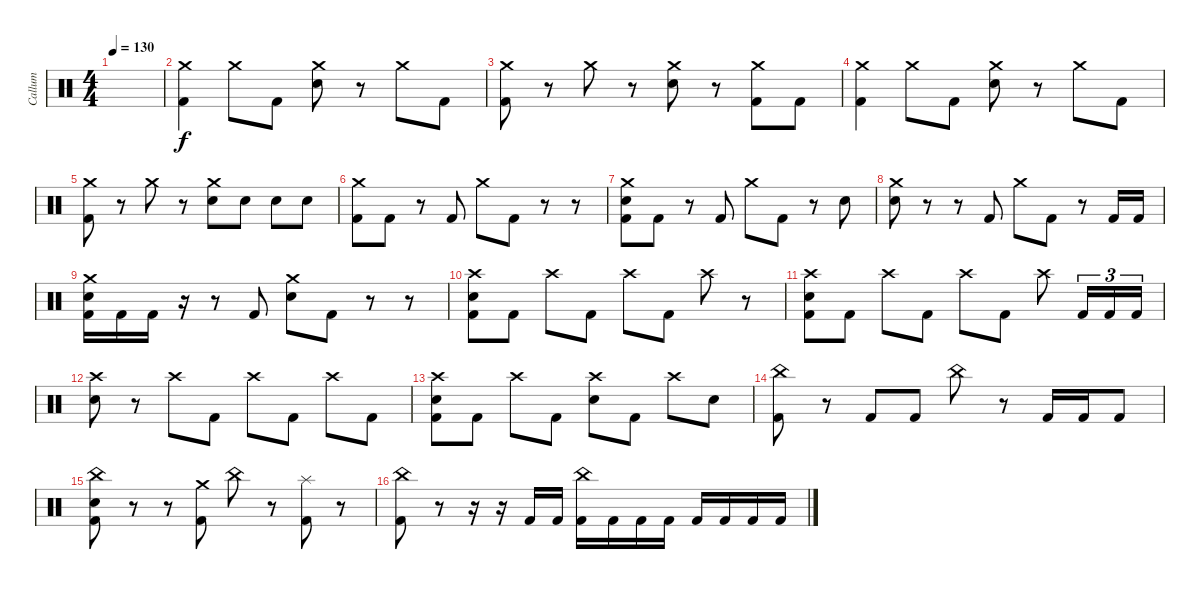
\track ("Callum" "Callum") {instrument percussion}
\staff {score}
\articulation defaults
\ts (4 4)
\tempo 130
\clef neutral
\ks c
|
("Crash medium (hit)" "Kick (hit) 2").4 "Crash medium (hit)".8 "Kick (hit) 2".8 ("Crash medium (hit)" "Electric Snare (hit)").8 r.8 "Crash medium (hit)".8 "Kick (hit) 2".8 |
("Crash medium (hit)" "Kick (hit) 2").8 r.8 "Crash medium (hit)".8 r.8 ("Crash medium (hit)" "Electric Snare (hit)").8 r.8 ("Crash medium (hit)" "Kick (hit) 2").8 "Kick (hit) 2".8 |
("Crash medium (hit)" "Kick (hit) 2").4 "Crash medium (hit)".8 "Kick (hit) 2".8 ("Crash medium (hit)" "Electric Snare (hit)").8 r.8 "Crash medium (hit)".8 "Kick (hit) 2".8 |
("Crash medium (hit)" "Kick (hit) 2").8 r.8 "Crash medium (hit)".8 r.8 ("Crash medium (hit)" "Electric Snare (hit)").8 "Electric Snare (hit)".8 "Electric Snare (hit)".8 "Electric Snare (hit)".8 |
("Crash medium (hit)" "Kick (hit) 2").8 "Kick (hit) 2".8 r.8 "Kick (hit) 2".8 "Crash medium (hit)".8 "Kick (hit) 2".8 r.8 r.8 |
("Crash medium (hit)" "Electric Snare (hit)" "Kick (hit) 2").8 "Kick (hit) 2".8 r.8 "Kick (hit) 2".8 "Crash medium (hit)".8 "Kick (hit) 2".8 r.8 "Electric Snare (hit)".8 |
("Crash medium (hit)" "Electric Snare (hit)").8 r.8 r.8 "Kick (hit) 2".8 "Crash medium (hit)".8 "Kick (hit) 2".8 r.8 "Kick (hit) 2".16 "Kick (hit) 2".16 |
("Crash medium (hit)" "Electric Snare (hit)" "Kick (hit) 2").16 "Kick (hit) 2".16 "Kick (hit) 2".16 r.16 r.8 "Kick (hit) 2".8 ("Crash medium (hit)" "Electric Snare (hit)").8 "Kick (hit) 2".8 r.8 r.8 |
("Crash high (hit)" "Electric Snare (hit)" "Kick (hit) 2").8 "Kick (hit) 2".8 "Crash high (hit)".8 "Kick (hit) 2".8 "Crash high (hit)".8 "Kick (hit) 2".8 "Crash high (hit)".8 r.8 |
("Crash high (hit)" "Electric Snare (hit)" "Kick (hit) 2").8 "Kick (hit) 2".8 "Crash high (hit)".8 "Kick (hit) 2".8 "Crash high (hit)".8 "Kick (hit) 2".8 "Crash high (hit)".8 "Kick (hit) 2".16{tu (3 2)} "Kick (hit) 2".16{tu (3 2)} "Kick (hit) 2".16{tu (3 2)} |
("Crash high (hit)" "Electric Snare (hit)").8 r.8 "Crash high (hit)".8 "Kick (hit) 2".8 "Crash high (hit)".8 "Kick (hit) 2".8 "Crash high (hit)".8 "Kick (hit) 2".8 |
("Crash high (hit)" "Electric Snare (hit)" "Kick (hit) 2").8 "Kick (hit) 2".8 "Crash high (hit)".8 "Kick (hit) 2".8 ("Crash high (hit)" "Electric Snare (hit)").8 "Kick (hit) 2".8 "Crash high (hit)".8 "Electric Snare (hit)".8 |
("China (hit)" "Kick (hit) 2").8 r.8 "Kick (hit) 2".8 "Kick (hit) 2".8 "China (hit)".8 r.8 "Kick (hit) 2".16 "Kick (hit) 2".16 "Kick (hit) 2".8 |
("China (hit)" "Electric Snare (hit)" "Kick (hit) 2").8 r.8 r.8 ("Crash medium (hit)" "Kick (hit) 2").8 "China (hit)".8 r.8 ("Splash (hit)" "Kick (hit) 2").8 r.8 |
("China (hit)" "Kick (hit) 2").8 r.8 r.16 r.16 "Kick (hit) 2".16 "Kick (hit) 2".16 ("China (hit)" "Kick (hit) 2").16 "Kick (hit) 2".16 "Kick (hit) 2".16 "Kick (hit) 2".16 "Kick (hit) 2".16 "Kick (hit) 2".16 "Kick (hit) 2".16 "Kick (hit) 2".16
